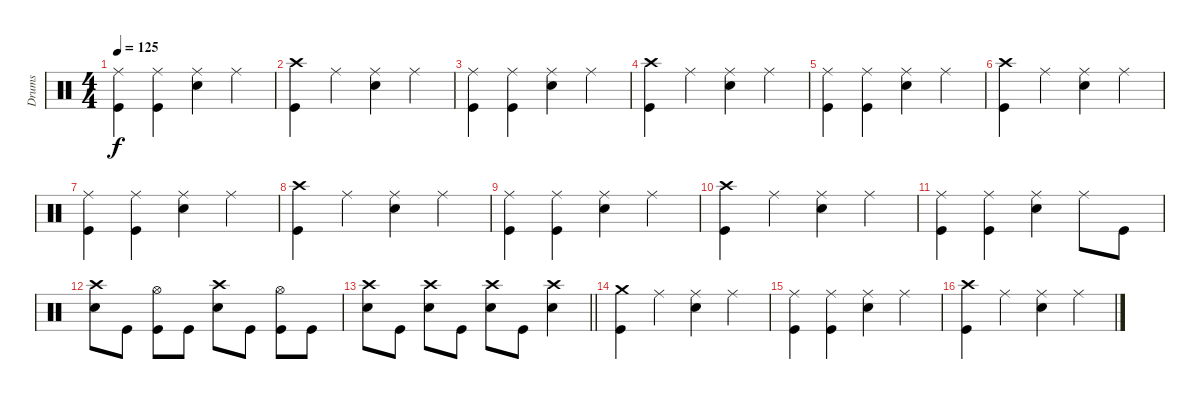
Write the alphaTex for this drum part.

\track ("Drums" "Drums") {instrument percussion}
\staff {score}
\articulation defaults
\ts (4 4)
\tempo 125
\clef neutral
\ks c
("Ride (middle)" "Kick (hit)").4{dy f} ("Ride (middle)" "Kick (hit)").4 ("Ride (middle)" "Snare (hit) 2").4 "Ride (middle)".4 |
("Crash high (hit)" "Kick (hit)").4 "Ride (middle)".4 ("Ride (middle)" "Snare (hit) 2").4 "Ride (middle)".4 |
("Ride (middle)" "Kick (hit)").4 ("Ride (middle)" "Kick (hit)").4 ("Ride (middle)" "Snare (hit) 2").4 "Ride (middle)".4 |
("Crash high (hit)" "Kick (hit)").4 "Ride (middle)".4 ("Ride (middle)" "Snare (hit) 2").4 "Ride (middle)".4 |
("Ride (middle)" "Kick (hit)").4 ("Ride (middle)" "Kick (hit)").4 ("Ride (middle)" "Snare (hit) 2").4 "Ride (middle)".4 |
("Crash high (hit)" "Kick (hit)").4 "Ride (middle)".4 ("Ride (middle)" "Snare (hit) 2").4 "Ride (middle)".4 |
("Ride (middle)" "Kick (hit)").4 ("Ride (middle)" "Kick (hit)").4 ("Ride (middle)" "Snare (hit) 2").4 "Ride (middle)".4 |
("Crash high (hit)" "Kick (hit)").4 "Ride (middle)".4 ("Ride (middle)" "Snare (hit) 2").4 "Ride (middle)".4 |
("Ride (middle)" "Kick (hit)").4 ("Ride (middle)" "Kick (hit)").4 ("Ride (middle)" "Snare (hit) 2").4 "Ride (middle)".4 |
("Crash high (hit)" "Kick (hit)").4 "Ride (middle)".4 ("Ride (middle)" "Snare (hit) 2").4 "Ride (middle)".4 |
("Ride (middle)" "Kick (hit)").4 ("Ride (middle)" "Kick (hit)").4 ("Ride (middle)" "Snare (hit) 2").4 "Ride (middle)".8 "Kick (hit)".8 |
("Crash high (hit)" "Snare (hit) 2").8 "Kick (hit)".8 ("Hi-Hat (open)" "Kick (hit)").8 "Kick (hit)".8 ("Crash high (hit)" "Snare (hit) 2").8 "Kick (hit)".8 ("Hi-Hat (open)" "Kick (hit)").8 "Kick (hit)".8 |
\barLineRight lightlight
("Crash high (hit)" "Snare (hit) 2").8 "Kick (hit)".8 ("Crash high (hit)" "Snare (hit) 2").8 "Kick (hit)".8 ("Crash high (hit)" "Snare (hit) 2").8 "Kick (hit)".8 ("Crash high (hit)" "Snare (hit) 2").4 |
("Crash medium (hit)" "Kick (hit)").4 "Ride (middle)".4 ("Ride (middle)" "Snare (hit) 2").4 "Ride (middle)".4 |
("Ride (middle)" "Kick (hit)").4 ("Ride (middle)" "Kick (hit)").4 ("Ride (middle)" "Snare (hit) 2").4 "Ride (middle)".4 |
("Crash high (hit)" "Kick (hit)").4 "Ride (middle)".4 ("Ride (middle)" "Snare (hit) 2").4 "Ride (middle)".4
